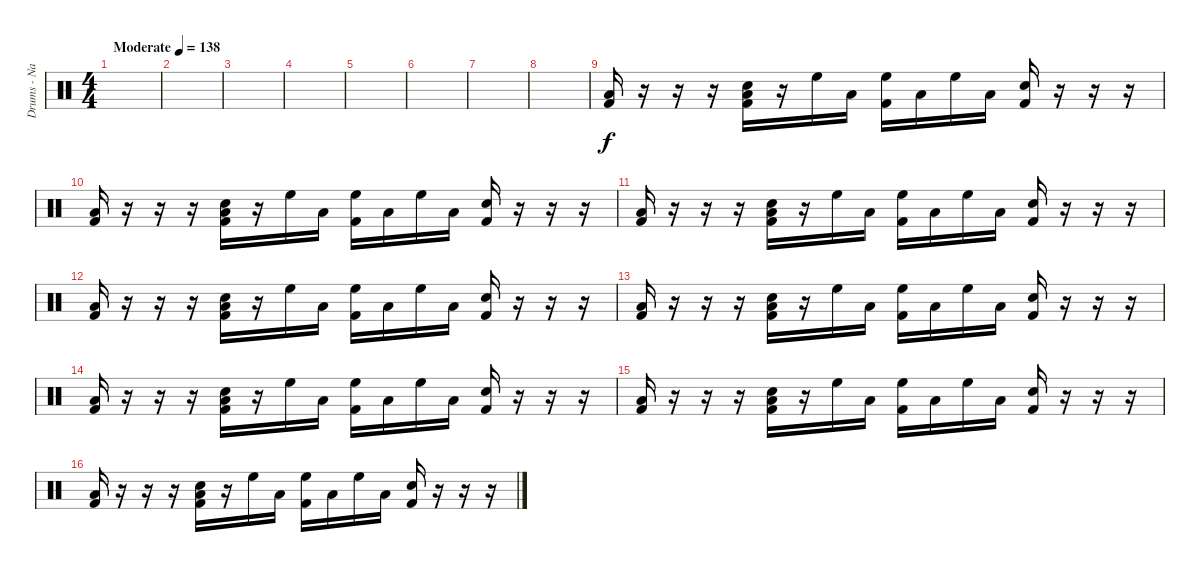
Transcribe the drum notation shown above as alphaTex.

\track ("Drums - Nathan" "Drums - Na") {instrument percussion}
\staff {score}
\articulation defaults
\ts (4 4)
\tempo (138 "Moderate")
\clef neutral
\ks c
|
|
|
|
|
|
|
|
("Low Tom (hit)" "Kick (hit) 2").16 r.16 r.16 r.16 ("Electric Snare (hit)" "Low Tom (hit)" "Kick (hit) 2").16 r.16 "High Floor Tom (hit)".16 "Low Tom (hit)".16 ("High Floor Tom (hit)" "Kick (hit) 2").16 "Low Tom (hit)".16 "High Floor Tom (hit)".16 "Low Tom (hit)".16 ("Electric Snare (hit)" "Kick (hit) 2").16 r.16 r.16 r.16 |
("Low Tom (hit)" "Kick (hit) 2").16 r.16 r.16 r.16 ("Electric Snare (hit)" "Low Tom (hit)" "Kick (hit) 2").16 r.16 "High Floor Tom (hit)".16 "Low Tom (hit)".16 ("High Floor Tom (hit)" "Kick (hit) 2").16 "Low Tom (hit)".16 "High Floor Tom (hit)".16 "Low Tom (hit)".16 ("Electric Snare (hit)" "Kick (hit) 2").16 r.16 r.16 r.16 |
("Low Tom (hit)" "Kick (hit) 2").16 r.16 r.16 r.16 ("Electric Snare (hit)" "Low Tom (hit)" "Kick (hit) 2").16 r.16 "High Floor Tom (hit)".16 "Low Tom (hit)".16 ("High Floor Tom (hit)" "Kick (hit) 2").16 "Low Tom (hit)".16 "High Floor Tom (hit)".16 "Low Tom (hit)".16 ("Electric Snare (hit)" "Kick (hit) 2").16 r.16 r.16 r.16 |
("Low Tom (hit)" "Kick (hit) 2").16 r.16 r.16 r.16 ("Electric Snare (hit)" "Low Tom (hit)" "Kick (hit) 2").16 r.16 "High Floor Tom (hit)".16 "Low Tom (hit)".16 ("High Floor Tom (hit)" "Kick (hit) 2").16 "Low Tom (hit)".16 "High Floor Tom (hit)".16 "Low Tom (hit)".16 ("Electric Snare (hit)" "Kick (hit) 2").16 r.16 r.16 r.16 |
("Low Tom (hit)" "Kick (hit) 2").16 r.16 r.16 r.16 ("Electric Snare (hit)" "Low Tom (hit)" "Kick (hit) 2").16 r.16 "High Floor Tom (hit)".16 "Low Tom (hit)".16 ("High Floor Tom (hit)" "Kick (hit) 2").16 "Low Tom (hit)".16 "High Floor Tom (hit)".16 "Low Tom (hit)".16 ("Electric Snare (hit)" "Kick (hit) 2").16 r.16 r.16 r.16 |
("Low Tom (hit)" "Kick (hit) 2").16 r.16 r.16 r.16 ("Electric Snare (hit)" "Low Tom (hit)" "Kick (hit) 2").16 r.16 "High Floor Tom (hit)".16 "Low Tom (hit)".16 ("High Floor Tom (hit)" "Kick (hit) 2").16 "Low Tom (hit)".16 "High Floor Tom (hit)".16 "Low Tom (hit)".16 ("Electric Snare (hit)" "Kick (hit) 2").16 r.16 r.16 r.16 |
("Low Tom (hit)" "Kick (hit) 2").16 r.16 r.16 r.16 ("Electric Snare (hit)" "Low Tom (hit)" "Kick (hit) 2").16 r.16 "High Floor Tom (hit)".16 "Low Tom (hit)".16 ("High Floor Tom (hit)" "Kick (hit) 2").16 "Low Tom (hit)".16 "High Floor Tom (hit)".16 "Low Tom (hit)".16 ("Electric Snare (hit)" "Kick (hit) 2").16 r.16 r.16 r.16 |
("Low Tom (hit)" "Kick (hit) 2").16 r.16 r.16 r.16 ("Electric Snare (hit)" "Low Tom (hit)" "Kick (hit) 2").16 r.16 "High Floor Tom (hit)".16 "Low Tom (hit)".16 ("High Floor Tom (hit)" "Kick (hit) 2").16 "Low Tom (hit)".16 "High Floor Tom (hit)".16 "Low Tom (hit)".16 ("Electric Snare (hit)" "Kick (hit) 2").16 r.16 r.16 r.16
